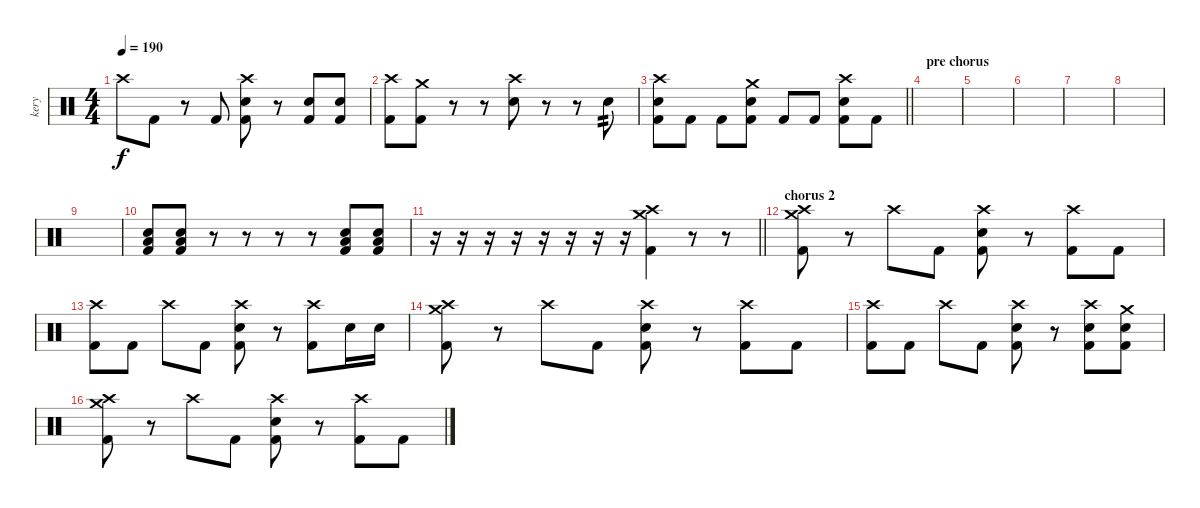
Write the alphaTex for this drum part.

\track ("kery" "kery") {instrument percussion}
\staff {score}
\articulation defaults
\ts (4 4)
\tempo 190
\clef neutral
\ks c "Crash high (hit)".8{dy f} "Kick (hit) 2".8
r.8 "Kick (hit) 2".8 ("Kick (hit) 2" "Electric Snare (hit)" "Crash high (hit)").8 r.8 ("Kick (hit) 2" "Electric Snare (hit)").8 ("Kick (hit) 2" "Electric Snare (hit)").8 |
("Kick (hit) 2" "Crash high (hit)").8 ("Kick (hit) 2" "Crash medium (hit)").8 r.8 r.8 ("Electric Snare (hit)" "Crash high (hit)").8 r.8 r.8 "Electric Snare (hit)".8{tp 2} |
\barLineRight lightlight
("Crash high (hit)" "Electric Snare (hit)" "Kick (hit) 2").8 "Kick (hit) 2".8 "Kick (hit) 2".8 ("Crash medium (hit)" "Electric Snare (hit)" "Kick (hit) 2").8 "Kick (hit) 2".8 "Kick (hit) 2".8 ("Crash high (hit)" "Electric Snare (hit)" "Kick (hit) 2").8 "Kick (hit) 2".8 |
\section ("" "pre chorus")
|
|
|
|
|
|
("Low Floor Tom (hit)" "Electric Snare (hit)" "Kick (hit) 2").8 ("Low Floor Tom (hit)" "Electric Snare (hit)" "Kick (hit) 2").8 r.8 r.8 r.8 r.8 ("Electric Snare (hit)" "Low Floor Tom (hit)" "Kick (hit) 2").8 ("Electric Snare (hit)" "Low Floor Tom (hit)" "Kick (hit) 2").8 |
\barLineRight lightlight
r.16 r.16 r.16 r.16 r.16 r.16 r.16 r.16 ("Crash high (hit)" "Crash medium (hit)" "Kick (hit) 2").4 r.8 r.8 |
\section ("" "chorus 2")
("Crash high (hit)" "Crash medium (hit)" "Kick (hit) 2").8 r.8 "Crash high (hit)".8 "Kick (hit) 2".8 ("Crash high (hit)" "Electric Snare (hit)" "Kick (hit) 2").8 r.8 ("Crash high (hit)" "Kick (hit) 2").8 "Kick (hit) 2".8 |
("Crash high (hit)" "Kick (hit) 2").8 "Kick (hit) 2".8 "Crash high (hit)".8 "Kick (hit) 2".8 ("Crash high (hit)" "Electric Snare (hit)" "Kick (hit) 2").8 r.8 ("Crash high (hit)" "Kick (hit) 2").8 "Electric Snare (hit)".16 "Electric Snare (hit)".16 |
("Crash high (hit)" "Crash medium (hit)" "Kick (hit) 2").8 r.8 "Crash high (hit)".8 "Kick (hit) 2".8 ("Crash high (hit)" "Electric Snare (hit)" "Kick (hit) 2").8 r.8 ("Crash high (hit)" "Kick (hit) 2").8 "Kick (hit) 2".8 |
("Crash high (hit)" "Kick (hit) 2").8 "Kick (hit) 2".8 "Crash high (hit)".8 "Kick (hit) 2".8 ("Crash high (hit)" "Electric Snare (hit)" "Kick (hit) 2").8 r.8 ("Crash high (hit)" "Electric Snare (hit)" "Kick (hit) 2").8 ("Crash medium (hit)" "Electric Snare (hit)" "Kick (hit) 2").8 |
("Crash high (hit)" "Crash medium (hit)" "Kick (hit) 2").8 r.8 "Crash high (hit)".8 "Kick (hit) 2".8 ("Crash high (hit)" "Electric Snare (hit)" "Kick (hit) 2").8 r.8 ("Crash high (hit)" "Kick (hit) 2").8 "Kick (hit) 2".8
